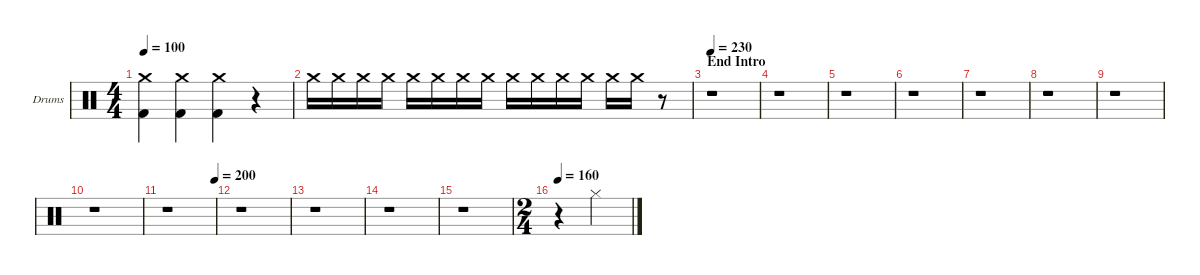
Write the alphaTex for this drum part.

\hideDynamics
\bracketExtendMode nobrackets
\firstSystemTrackNameOrientation horizontal
\otherSystemsTrackNameOrientation horizontal
\track ("Drumkit" "Drums") {instrument percussion}
\staff {score}
\articulation defaults
\ts (4 4)
\tempo 100
\clef neutral
\ks c
("Kick (hit) 2" "Crash medium (hit)").4{dy f} ("Kick (hit) 2" "Crash medium (hit)").4 ("Kick (hit) 2" "Crash medium (hit)").4 r.4 |
"Crash medium (hit)".16 "Crash medium (hit)".16 "Crash medium (hit)".16 "Crash medium (hit)".16 "Crash medium (hit)".16 "Crash medium (hit)".16 "Crash medium (hit)".16 "Crash medium (hit)".16 "Crash medium (hit)".16 "Crash medium (hit)".16 "Crash medium (hit)".16 "Crash medium (hit)".16 "Crash medium (hit)".16 "Crash medium (hit)".16 r.8 |
\section ("" "End Intro")
\tempo 230
r.1 |
r.1 |
r.1 |
r.1 |
r.1 |
r.1 |
r.1 |
r.1 |
\tempo (200 1)
r.1 |
r.1 |
r.1 |
r.1 |
r.1 |
\ts (2 4)
\tempo 160
r.4 "Hi-Hat (closed)".4
